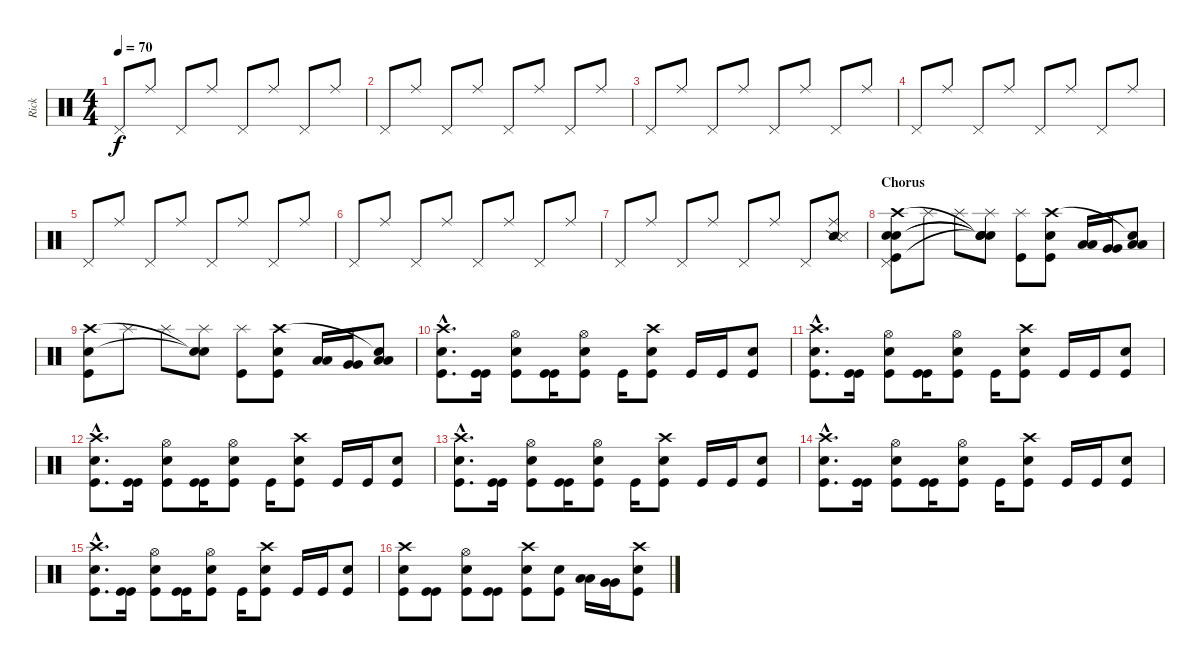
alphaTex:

\track ("Rick" "Rick") {instrument percussion}
\staff {score}
\articulation defaults
\ts (4 4)
\tempo 70
\clef neutral
\ks c "Pedal Hi-Hat (hit)".8{dy f} "Ride (middle)".8 "Pedal Hi-Hat (hit)".8 "Ride (middle)".8 "Pedal Hi-Hat (hit)".8 "Ride (middle)".8 "Pedal Hi-Hat (hit)".8 "Ride (middle)".8
|
"Pedal Hi-Hat (hit)".8 "Ride (middle)".8 "Pedal Hi-Hat (hit)".8 "Ride (middle)".8 "Pedal Hi-Hat (hit)".8 "Ride (middle)".8 "Pedal Hi-Hat (hit)".8 "Ride (middle)".8 |
"Pedal Hi-Hat (hit)".8 "Ride (middle)".8 "Pedal Hi-Hat (hit)".8 "Ride (middle)".8 "Pedal Hi-Hat (hit)".8 "Ride (middle)".8 "Pedal Hi-Hat (hit)".8 "Ride (middle)".8 |
"Pedal Hi-Hat (hit)".8 "Ride (middle)".8 "Pedal Hi-Hat (hit)".8 "Ride (middle)".8 "Pedal Hi-Hat (hit)".8 "Ride (middle)".8 "Pedal Hi-Hat (hit)".8 "Ride (middle)".8 |
"Pedal Hi-Hat (hit)".8 "Ride (middle)".8 "Pedal Hi-Hat (hit)".8 "Ride (middle)".8 "Pedal Hi-Hat (hit)".8 "Ride (middle)".8 "Pedal Hi-Hat (hit)".8 "Ride (middle)".8 |
"Pedal Hi-Hat (hit)".8 "Ride (middle)".8 "Pedal Hi-Hat (hit)".8 "Ride (middle)".8 "Pedal Hi-Hat (hit)".8 "Ride (middle)".8 "Pedal Hi-Hat (hit)".8 "Ride (middle)".8 |
"Pedal Hi-Hat (hit)".8 "Ride (middle)".8 "Pedal Hi-Hat (hit)".8 "Ride (middle)".8 "Pedal Hi-Hat (hit)".8 "Ride (middle)".8 "Pedal Hi-Hat (hit)".8 ("Ride (middle)" "Snare (side stick) 2" "Snare (side stick) 3").8 |
\section ("" "Chorus")
("Pedal Hi-Hat (hit)" "Kick (hit)" "Electric Snare (hit)" "Electric Snare (hit)" "Crash high (hit)").8 "Splash (hit)".8 "Splash (hit)".8 ("Splash (hit)" "Snare (hit)"{t} "Snare (hit)"{t} "Snare (hit)"{t} "Snare (hit)"{t}).8 ("Splash (hit)" "Kick (hit)").8 ("Kick (hit)" "Electric Snare (hit)" "Crash high (hit)").8 ("Low Tom (hit)" "Low Tom (hit)").16 ("Very Low Tom (hit)" "Very Low Tom (hit)").16 ("Low Floor Tom (hit)" "Low Floor Tom (hit)" "Snare (hit)"{t}).8 |
("Kick (hit)" "Crash high (hit)" "Electric Snare (hit)").8 "Splash (hit)".8 "Splash (hit)".8 ("Splash (hit)" "Snare (hit)"{t} "Snare (hit)"{t}).8 ("Splash (hit)" "Kick (hit)").8 ("Kick (hit)" "Electric Snare (hit)" "Crash high (hit)").8 ("Low Tom (hit)" "Low Tom (hit)").16 ("Very Low Tom (hit)" "Very Low Tom (hit)").16 ("Low Floor Tom (hit)" "Low Floor Tom (hit)" "Snare (hit)"{t}).8 |
("Kick (hit)"{hac} "Crash high (hit)"{hac} "Electric Snare (hit)"{hac}).8{d} ("Kick (hit)" "Kick (hit)").16 ("Kick (hit)" "Hi-Hat (open)" "Electric Snare (hit)").8 ("Kick (hit)" "Kick (hit)").16 ("Kick (hit)" "Hi-Hat (open)" "Electric Snare (hit)").8 "Kick (hit)".16 ("Kick (hit)" "Crash high (hit)" "Electric Snare (hit)").8 "Kick (hit)".16 "Kick (hit)".16 ("Kick (hit)" "Electric Snare (hit)").8 |
("Kick (hit)"{hac} "Crash high (hit)"{hac} "Electric Snare (hit)"{hac}).8{d} ("Kick (hit)" "Kick (hit)").16 ("Kick (hit)" "Hi-Hat (open)" "Electric Snare (hit)").8 ("Kick (hit)" "Kick (hit)").16 ("Kick (hit)" "Hi-Hat (open)" "Electric Snare (hit)").8 "Kick (hit)".16 ("Kick (hit)" "Crash high (hit)" "Electric Snare (hit)").8 "Kick (hit)".16 "Kick (hit)".16 ("Kick (hit)" "Electric Snare (hit)").8 |
("Kick (hit)"{hac} "Crash high (hit)"{hac} "Electric Snare (hit)"{hac}).8{d} ("Kick (hit)" "Kick (hit)").16 ("Kick (hit)" "Hi-Hat (open)" "Electric Snare (hit)").8 ("Kick (hit)" "Kick (hit)").16 ("Kick (hit)" "Hi-Hat (open)" "Electric Snare (hit)").8 "Kick (hit)".16 ("Kick (hit)" "Crash high (hit)" "Electric Snare (hit)").8 "Kick (hit)".16 "Kick (hit)".16 ("Kick (hit)" "Electric Snare (hit)").8 |
("Kick (hit)"{hac} "Crash high (hit)"{hac} "Electric Snare (hit)"{hac}).8{d} ("Kick (hit)" "Kick (hit)").16 ("Kick (hit)" "Hi-Hat (open)" "Electric Snare (hit)").8 ("Kick (hit)" "Kick (hit)").16 ("Kick (hit)" "Hi-Hat (open)" "Electric Snare (hit)").8 "Kick (hit)".16 ("Kick (hit)" "Crash high (hit)" "Electric Snare (hit)").8 "Kick (hit)".16 "Kick (hit)".16 ("Kick (hit)" "Electric Snare (hit)").8 |
("Kick (hit)"{hac} "Crash high (hit)"{hac} "Electric Snare (hit)"{hac}).8{d} ("Kick (hit)" "Kick (hit)").16 ("Kick (hit)" "Hi-Hat (open)" "Electric Snare (hit)").8 ("Kick (hit)" "Kick (hit)").16 ("Kick (hit)" "Hi-Hat (open)" "Electric Snare (hit)").8 "Kick (hit)".16 ("Kick (hit)" "Crash high (hit)" "Electric Snare (hit)").8 "Kick (hit)".16 "Kick (hit)".16 ("Kick (hit)" "Electric Snare (hit)").8 |
("Kick (hit)"{hac} "Crash high (hit)"{hac} "Electric Snare (hit)"{hac}).8{d} ("Kick (hit)" "Kick (hit)").16 ("Kick (hit)" "Hi-Hat (open)" "Electric Snare (hit)").8 ("Kick (hit)" "Kick (hit)").16 ("Kick (hit)" "Hi-Hat (open)" "Electric Snare (hit)").8 "Kick (hit)".16 ("Kick (hit)" "Crash high (hit)" "Electric Snare (hit)").8 "Kick (hit)".16 "Kick (hit)".16 ("Kick (hit)" "Electric Snare (hit)").8 |
("Kick (hit)" "Crash high (hit)" "Electric Snare (hit)").8 ("Kick (hit)" "Kick (hit)").8 ("Kick (hit)" "Hi-Hat (open)" "Electric Snare (hit)").8 ("Kick (hit)" "Kick (hit)").8 ("Kick (hit)" "Crash high (hit)" "Electric Snare (hit)").8 ("Kick (hit)" "Electric Snare (hit)").8 ("Low Tom (hit)" "Low Tom (hit)").16 ("Very Low Tom (hit)" "Very Low Tom (hit)").16 ("Kick (hit)" "Electric Snare (hit)" "Crash high (hit)").8
